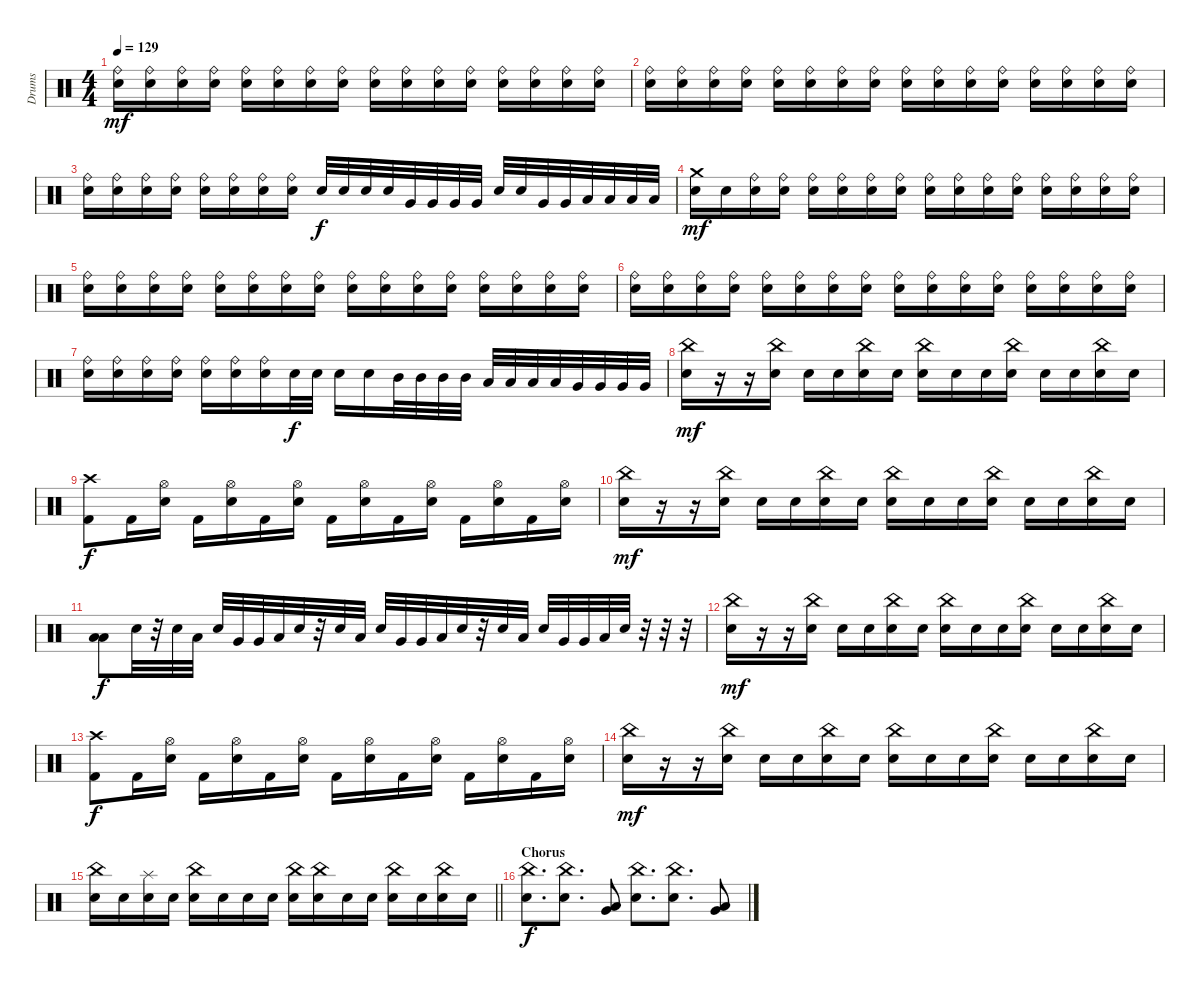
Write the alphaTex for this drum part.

\track ("Drums" "Drums") {instrument percussion}
\staff {score}
\articulation defaults
\ts (4 4)
\tempo 129
\clef neutral
\ks c
("Ride (bell)" "Snare (hit) 2").16{dy mf} ("Ride (bell)" "Snare (hit) 2").16 ("Ride (bell)" "Snare (hit) 2").16 ("Ride (bell)" "Snare (hit) 2").16 ("Ride (bell)" "Snare (hit) 2").16 ("Ride (bell)" "Snare (hit) 2").16 ("Ride (bell)" "Snare (hit) 2").16 ("Ride (bell)" "Snare (hit) 2").16 ("Ride (bell)" "Snare (hit) 2").16 ("Ride (bell)" "Snare (hit) 2").16 ("Ride (bell)" "Snare (hit) 2").16 ("Ride (bell)" "Snare (hit) 2").16 ("Ride (bell)" "Snare (hit) 2").16 ("Ride (bell)" "Snare (hit) 2").16 ("Ride (bell)" "Snare (hit) 2").16 ("Ride (bell)" "Snare (hit) 2").16 |
("Ride (bell)" "Snare (hit) 2").16 ("Ride (bell)" "Snare (hit) 2").16 ("Ride (bell)" "Snare (hit) 2").16 ("Ride (bell)" "Snare (hit) 2").16 ("Ride (bell)" "Snare (hit) 2").16 ("Ride (bell)" "Snare (hit) 2").16 ("Ride (bell)" "Snare (hit) 2").16 ("Ride (bell)" "Snare (hit) 2").16 ("Ride (bell)" "Snare (hit) 2").16 ("Ride (bell)" "Snare (hit) 2").16 ("Ride (bell)" "Snare (hit) 2").16 ("Ride (bell)" "Snare (hit) 2").16 ("Ride (bell)" "Snare (hit) 2").16 ("Ride (bell)" "Snare (hit) 2").16 ("Ride (bell)" "Snare (hit) 2").16 ("Ride (bell)" "Snare (hit) 2").16 |
("Ride (bell)" "Snare (hit) 2").16 ("Ride (bell)" "Snare (hit) 2").16 ("Ride (bell)" "Snare (hit) 2").16 ("Ride (bell)" "Snare (hit) 2").16 ("Ride (bell)" "Snare (hit) 2").16 ("Ride (bell)" "Snare (hit) 2").16 ("Ride (bell)" "Snare (hit) 2").16 ("Ride (bell)" "Snare (hit) 2").16 "Snare (hit) 2".32{dy f} "Snare (hit) 2".32 "Snare (hit) 2".32 "Snare (hit) 2".32 "Very Low Tom (hit)".32 "Very Low Tom (hit)".32 "Very Low Tom (hit)".32 "Very Low Tom (hit)".32 "Snare (hit) 2".32 "Snare (hit) 2".32 "Very Low Tom (hit)".32 "Very Low Tom (hit)".32 "Low Floor Tom (hit)".32 "Low Floor Tom (hit)".32 "Low Floor Tom (hit)".32 "Low Floor Tom (hit)".32 |
("Crash medium (hit)" "Snare (hit) 2").16{dy mf} "Snare (hit) 2".16 ("Ride (bell)" "Snare (hit) 2").16 ("Ride (bell)" "Snare (hit) 2").16 ("Ride (bell)" "Snare (hit) 2").16 ("Ride (bell)" "Snare (hit) 2").16 ("Ride (bell)" "Snare (hit) 2").16 ("Ride (bell)" "Snare (hit) 2").16 ("Ride (bell)" "Snare (hit) 2").16 ("Ride (bell)" "Snare (hit) 2").16 ("Ride (bell)" "Snare (hit) 2").16 ("Ride (bell)" "Snare (hit) 2").16 ("Ride (bell)" "Snare (hit) 2").16 ("Ride (bell)" "Snare (hit) 2").16 ("Ride (bell)" "Snare (hit) 2").16 ("Ride (bell)" "Snare (hit) 2").16 |
("Ride (bell)" "Snare (hit) 2").16 ("Ride (bell)" "Snare (hit) 2").16 ("Ride (bell)" "Snare (hit) 2").16 ("Ride (bell)" "Snare (hit) 2").16 ("Ride (bell)" "Snare (hit) 2").16 ("Ride (bell)" "Snare (hit) 2").16 ("Ride (bell)" "Snare (hit) 2").16 ("Ride (bell)" "Snare (hit) 2").16 ("Ride (bell)" "Snare (hit) 2").16 ("Ride (bell)" "Snare (hit) 2").16 ("Ride (bell)" "Snare (hit) 2").16 ("Ride (bell)" "Snare (hit) 2").16 ("Ride (bell)" "Snare (hit) 2").16 ("Ride (bell)" "Snare (hit) 2").16 ("Ride (bell)" "Snare (hit) 2").16 ("Ride (bell)" "Snare (hit) 2").16 |
("Ride (bell)" "Snare (hit) 2").16 ("Ride (bell)" "Snare (hit) 2").16 ("Ride (bell)" "Snare (hit) 2").16 ("Ride (bell)" "Snare (hit) 2").16 ("Ride (bell)" "Snare (hit) 2").16 ("Ride (bell)" "Snare (hit) 2").16 ("Ride (bell)" "Snare (hit) 2").16 ("Ride (bell)" "Snare (hit) 2").16 ("Ride (bell)" "Snare (hit) 2").16 ("Ride (bell)" "Snare (hit) 2").16 ("Ride (bell)" "Snare (hit) 2").16 ("Ride (bell)" "Snare (hit) 2").16 ("Ride (bell)" "Snare (hit) 2").16 ("Ride (bell)" "Snare (hit) 2").16 ("Ride (bell)" "Snare (hit) 2").16 ("Ride (bell)" "Snare (hit) 2").16 |
("Ride (bell)" "Snare (hit) 2").16 ("Ride (bell)" "Snare (hit) 2").16 ("Ride (bell)" "Snare (hit) 2").16 ("Ride (bell)" "Snare (hit) 2").16 ("Ride (bell)" "Snare (hit) 2").16 ("Ride (bell)" "Snare (hit) 2").16 ("Ride (bell)" "Snare (hit) 2").16 "Snare (hit) 2".32{dy f} "Snare (hit) 2".32 "Snare (hit) 2".16 "Snare (hit) 2".16 "Mid Tom (hit)".32 "Mid Tom (hit)".32 "Mid Tom (hit)".32 "Mid Tom (hit)".32 "Low Tom (hit)".32 "Low Tom (hit)".32 "Low Tom (hit)".32 "Low Tom (hit)".32 "Very Low Tom (hit)".32 "Very Low Tom (hit)".32 "Very Low Tom (hit)".32 "Very Low Tom (hit)".32 |
("China (hit)" "Snare (hit) 2").16{dy mf} r.16 r.16 ("China (hit)" "Snare (hit) 2").16 "Snare (hit) 2".16 "Snare (hit) 2".16 ("China (hit)" "Snare (hit) 2").16 "Snare (hit) 2".16 ("China (hit)" "Snare (hit) 2").16 "Snare (hit) 2".16 "Snare (hit) 2".16 ("China (hit)" "Snare (hit) 2").16 "Snare (hit) 2".16 "Snare (hit) 2".16 ("China (hit)" "Snare (hit) 2").16 "Snare (hit) 2".16 |
("Crash high (hit)" "Kick (hit) 2").8{dy f} "Kick (hit) 2".16 ("Hi-Hat (open)" "Snare (hit) 2").16 "Kick (hit) 2".16 ("Hi-Hat (open)" "Snare (hit) 2").16 "Kick (hit) 2".16 ("Hi-Hat (open)" "Snare (hit) 2").16 "Kick (hit) 2".16 ("Hi-Hat (open)" "Snare (hit) 2").16 "Kick (hit) 2".16 ("Hi-Hat (open)" "Snare (hit) 2").16 "Kick (hit) 2".16 ("Hi-Hat (open)" "Snare (hit) 2").16 "Kick (hit) 2".16 ("Hi-Hat (open)" "Snare (hit) 2").16 |
("China (hit)" "Snare (hit) 2").16{dy mf} r.16 r.16 ("China (hit)" "Snare (hit) 2").16 "Snare (hit) 2".16 "Snare (hit) 2".16 ("China (hit)" "Snare (hit) 2").16 "Snare (hit) 2".16 ("China (hit)" "Snare (hit) 2").16 "Snare (hit) 2".16 "Snare (hit) 2".16 ("China (hit)" "Snare (hit) 2").16 "Snare (hit) 2".16 "Snare (hit) 2".16 ("China (hit)" "Snare (hit) 2").16 "Snare (hit) 2".16 |
("Low Tom (hit)" "Low Floor Tom (hit)").8{dy f} "Snare (hit) 2".32 r.32 "Snare (hit) 2".32 "Low Tom (hit)".32 "Snare (hit) 2".32 "Very Low Tom (hit)".32 "Very Low Tom (hit)".32 "Low Floor Tom (hit)".32 "Snare (hit) 2".32 r.32 "Snare (hit) 2".32 "Low Tom (hit)".32 "Snare (hit) 2".32 "Very Low Tom (hit)".32 "Very Low Tom (hit)".32 "Low Floor Tom (hit)".32 "Snare (hit) 2".32 r.32 "Snare (hit) 2".32 "Low Tom (hit)".32 "Snare (hit) 2".32 "Very Low Tom (hit)".32 "Very Low Tom (hit)".32 "Low Floor Tom (hit)".32 "Snare (hit) 2".32 r.32 r.32 r.32 |
("China (hit)" "Snare (hit) 2").16{dy mf} r.16 r.16 ("China (hit)" "Snare (hit) 2").16 "Snare (hit) 2".16 "Snare (hit) 2".16 ("China (hit)" "Snare (hit) 2").16 "Snare (hit) 2".16 ("China (hit)" "Snare (hit) 2").16 "Snare (hit) 2".16 "Snare (hit) 2".16 ("China (hit)" "Snare (hit) 2").16 "Snare (hit) 2".16 "Snare (hit) 2".16 ("China (hit)" "Snare (hit) 2").16 "Snare (hit) 2".16 |
("Crash high (hit)" "Kick (hit) 2").8{dy f} "Kick (hit) 2".16 ("Hi-Hat (open)" "Snare (hit) 2").16 "Kick (hit) 2".16 ("Hi-Hat (open)" "Snare (hit) 2").16 "Kick (hit) 2".16 ("Hi-Hat (open)" "Snare (hit) 2").16 "Kick (hit) 2".16 ("Hi-Hat (open)" "Snare (hit) 2").16 "Kick (hit) 2".16 ("Hi-Hat (open)" "Snare (hit) 2").16 "Kick (hit) 2".16 ("Hi-Hat (open)" "Snare (hit) 2").16 "Kick (hit) 2".16 ("Hi-Hat (open)" "Snare (hit) 2").16 |
("China (hit)" "Snare (hit) 2").16{dy mf} r.16 r.16 ("China (hit)" "Snare (hit) 2").16 "Snare (hit) 2".16 "Snare (hit) 2".16 ("China (hit)" "Snare (hit) 2").16 "Snare (hit) 2".16 ("China (hit)" "Snare (hit) 2").16 "Snare (hit) 2".16 "Snare (hit) 2".16 ("China (hit)" "Snare (hit) 2").16 "Snare (hit) 2".16 "Snare (hit) 2".16 ("China (hit)" "Snare (hit) 2").16 "Snare (hit) 2".16 |
\barLineRight lightlight
("China (hit)" "Snare (hit) 2").16 "Snare (hit) 2".16 ("Splash (hit)" "Snare (hit) 2").16 "Snare (hit) 2".16 ("China (hit)" "Snare (hit) 2").16 "Snare (hit) 2".16 "Snare (hit) 2".16 "Snare (hit) 2".16 ("China (hit)" "Snare (hit) 2").16 ("China (hit)" "Snare (hit) 2").16 "Snare (hit) 2".16 "Snare (hit) 2".16 ("China (hit)" "Snare (hit) 2").16 "Snare (hit) 2".16 ("China (hit)" "Snare (hit) 2").16 "Snare (hit) 2".16 |
\section ("" "Chorus")
("China (hit)" "Snare (hit) 2").8{d dy f} ("China (hit)" "Snare (hit) 2").8{d} ("Very Low Tom (hit)" "Low Floor Tom (hit)").8 ("China (hit)" "Snare (hit) 2").8{d} ("China (hit)" "Snare (hit) 2").8{d} ("Very Low Tom (hit)" "Low Floor Tom (hit)").8
